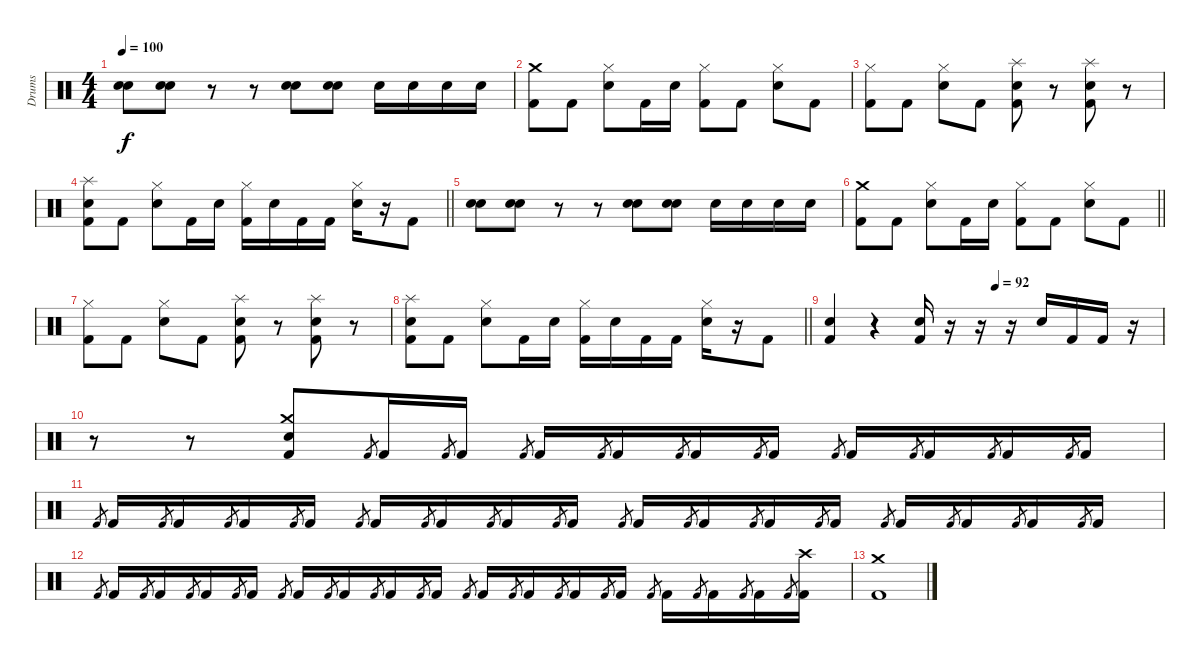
\track ("Drums" "Drums") {instrument percussion}
\staff {score}
\articulation defaults
\ts (4 4)
\tempo 100
\clef neutral
\ks c
("Snare (hit) 2" "Snare (hit) 2").8{dy f} ("Snare (hit) 2" "Snare (hit) 2").8 r.8 r.8 ("Snare (hit) 2" "Snare (hit) 2").8 ("Snare (hit) 2" "Snare (hit) 2").8 "Snare (hit) 2".16 "Snare (hit) 2".16 "Snare (hit) 2".16 "Snare (hit) 2".16 |
("Crash medium (hit)" "Kick (hit) 2").8 "Kick (hit) 2".8 ("Hi-Hat (closed)" "Snare (hit) 2").8 "Kick (hit) 2".16 "Snare (hit) 2".16 ("Hi-Hat (closed)" "Kick (hit) 2").8 "Kick (hit) 2".8 ("Hi-Hat (closed)" "Snare (hit) 2").8 "Kick (hit) 2".8 |
("Hi-Hat (closed)" "Kick (hit) 2").8 "Kick (hit) 2".8 ("Hi-Hat (closed)" "Snare (hit) 2").8 "Kick (hit) 2".8 ("Splash (hit)" "Snare (hit) 2" "Kick (hit) 2").8 r.8 ("Splash (hit)" "Snare (hit) 2" "Kick (hit) 2").8 r.8 |
\barLineRight lightlight
("Splash (hit)" "Snare (hit) 2" "Kick (hit) 2").8 "Kick (hit) 2".8 ("Hi-Hat (closed)" "Snare (hit) 2").8 "Kick (hit) 2".16 "Snare (hit) 2".16 ("Hi-Hat (closed)" "Kick (hit) 2").16 "Snare (hit) 2".16 "Kick (hit) 2".16 "Kick (hit) 2".16 ("Hi-Hat (closed)" "Snare (hit) 2").16 r.16 "Kick (hit) 2".8 |
("Snare (hit) 2" "Snare (hit) 2").8 ("Snare (hit) 2" "Snare (hit) 2").8 r.8 r.8 ("Snare (hit) 2" "Snare (hit) 2").8 ("Snare (hit) 2" "Snare (hit) 2").8 "Snare (hit) 2".16 "Snare (hit) 2".16 "Snare (hit) 2".16 "Snare (hit) 2".16 |
\barLineRight lightlight
("Crash medium (hit)" "Kick (hit) 2").8 "Kick (hit) 2".8 ("Hi-Hat (closed)" "Snare (hit) 2").8 "Kick (hit) 2".16 "Snare (hit) 2".16 ("Hi-Hat (closed)" "Kick (hit) 2").8 "Kick (hit) 2".8 ("Hi-Hat (closed)" "Snare (hit) 2").8 "Kick (hit) 2".8 |
("Hi-Hat (closed)" "Kick (hit) 2").8 "Kick (hit) 2".8 ("Hi-Hat (closed)" "Snare (hit) 2").8 "Kick (hit) 2".8 ("Splash (hit)" "Snare (hit) 2" "Kick (hit) 2").8 r.8 ("Splash (hit)" "Snare (hit) 2" "Kick (hit) 2").8 r.8 |
\barLineRight lightlight
("Splash (hit)" "Snare (hit) 2" "Kick (hit) 2").8 "Kick (hit) 2".8 ("Hi-Hat (closed)" "Snare (hit) 2").8 "Kick (hit) 2".16 "Snare (hit) 2".16 ("Hi-Hat (closed)" "Kick (hit) 2").16 "Snare (hit) 2".16 "Kick (hit) 2".16 "Kick (hit) 2".16 ("Hi-Hat (closed)" "Snare (hit) 2").16 r.16 "Kick (hit) 2".8 |
\tempo (92 0.5)
("Snare (hit) 2" "Kick (hit) 2").4 r.4 ("Snare (hit) 2" "Kick (hit) 2").16 r.16 r.16 r.16 "Snare (hit) 2".16 "Kick (hit) 2".16 "Kick (hit) 2".16 r.16 |
r.8 r.8 ("Crash medium (hit)" "Snare (hit) 2" "Kick (hit) 2").8 "Kick (hit) 2".8{gr} "Kick (hit) 2".16 "Kick (hit) 2".8{gr} "Kick (hit) 2".16 "Kick (hit) 2".8{gr} "Kick (hit) 2".16 "Kick (hit) 2".8{gr} "Kick (hit) 2".16 "Kick (hit) 2".8{gr} "Kick (hit) 2".16 "Kick (hit) 2".8{gr} "Kick (hit) 2".16 "Kick (hit) 2".8{gr} "Kick (hit) 2".16 "Kick (hit) 2".8{gr} "Kick (hit) 2".16 "Kick (hit) 2".8{gr} "Kick (hit) 2".16 "Kick (hit) 2".8{gr} "Kick (hit) 2".16 |
"Kick (hit) 2".8{gr} "Kick (hit) 2".16 "Kick (hit) 2".8{gr} "Kick (hit) 2".16 "Kick (hit) 2".8{gr} "Kick (hit) 2".16 "Kick (hit) 2".8{gr} "Kick (hit) 2".16 "Kick (hit) 2".8{gr} "Kick (hit) 2".16 "Kick (hit) 2".8{gr} "Kick (hit) 2".16 "Kick (hit) 2".8{gr} "Kick (hit) 2".16 "Kick (hit) 2".8{gr} "Kick (hit) 2".16 "Kick (hit) 2".8{gr} "Kick (hit) 2".16 "Kick (hit) 2".8{gr} "Kick (hit) 2".16 "Kick (hit) 2".8{gr} "Kick (hit) 2".16 "Kick (hit) 2".8{gr} "Kick (hit) 2".16 "Kick (hit) 2".8{gr} "Kick (hit) 2".16 "Kick (hit) 2".8{gr} "Kick (hit) 2".16 "Kick (hit) 2".8{gr} "Kick (hit) 2".16 "Kick (hit) 2".8{gr} "Kick (hit) 2".16 |
"Kick (hit) 2".8{gr} "Kick (hit) 2".16 "Kick (hit) 2".8{gr} "Kick (hit) 2".16 "Kick (hit) 2".8{gr} "Kick (hit) 2".16 "Kick (hit) 2".8{gr} "Kick (hit) 2".16 "Kick (hit) 2".8{gr} "Kick (hit) 2".16 "Kick (hit) 2".8{gr} "Kick (hit) 2".16 "Kick (hit) 2".8{gr} "Kick (hit) 2".16 "Kick (hit) 2".8{gr} "Kick (hit) 2".16 "Kick (hit) 2".8{gr} "Kick (hit) 2".16 "Kick (hit) 2".8{gr} "Kick (hit) 2".16 "Kick (hit) 2".8{gr} "Kick (hit) 2".16 "Kick (hit) 2".8{gr} "Kick (hit) 2".16 "Kick (hit) 2".8{gr} "Kick (hit) 2".16 "Kick (hit) 2".8{gr} "Kick (hit) 2".16 "Kick (hit) 2".8{gr} "Kick (hit) 2".16 "Kick (hit) 2".8{gr} ("Crash high (hit)" "Kick (hit) 2").16 |
("Crash medium (hit)" "Kick (hit) 2").1
